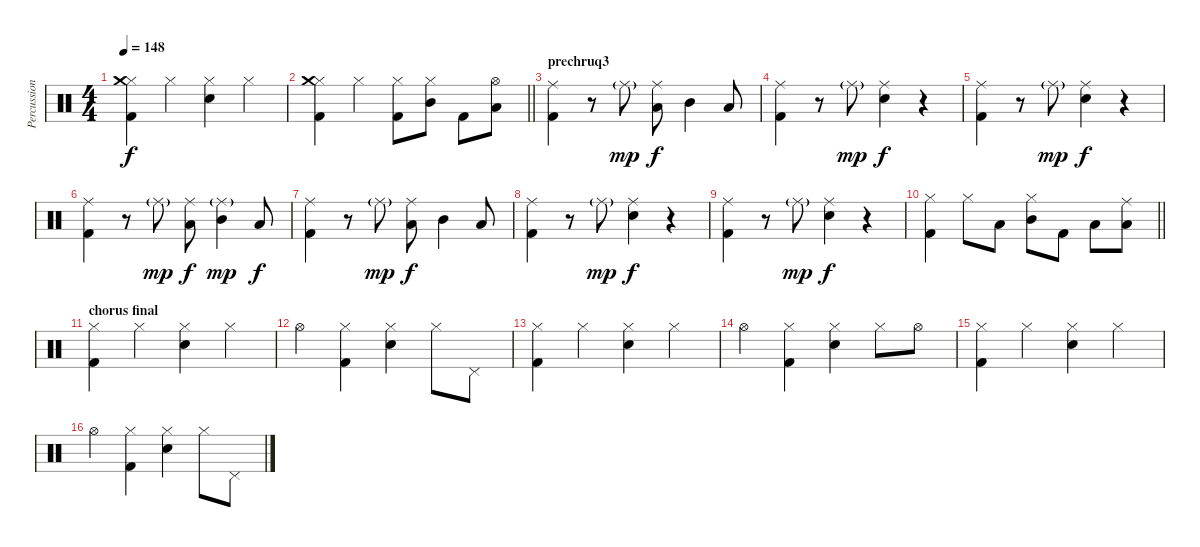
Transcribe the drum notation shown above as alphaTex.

\track ("Percussions" "Percussion") {instrument percussion}
\staff {score}
\articulation defaults
\ts (4 4)
\tempo 148
\clef neutral
\ks c
("Hi-Hat (closed)" "Kick (hit) 2" "Crash medium (hit)").4{dy f} "Hi-Hat (closed)".4 ("Hi-Hat (closed)" "Snare (hit) 2").4 "Hi-Hat (closed)".4 |
\barLineRight lightlight
("Hi-Hat (closed)" "Kick (hit) 2" "Crash medium (hit)").4 "Hi-Hat (closed)".4 ("Hi-Hat (closed)" "Kick (hit) 2").8 ("Hi-Hat (closed)" "Mid Tom (hit)").8 "Kick (hit) 2".8 ("Hi-Hat (open)" "Low Tom (hit)").8 |
\section ("" "prechruq3")
("Ride (middle)" "Kick (hit) 2").4 r.8 "Ride (middle)"{g}.8{dy mp} ("Ride (middle)" "Low Tom (hit)").8{dy f} "Mid Tom (hit)".4 "Low Tom (hit)".8 |
("Ride (middle)" "Kick (hit) 2").4 r.8 "Ride (middle)"{g}.8{dy mp} ("Ride (middle)" "Snare (hit) 2").4{dy f} r.4 |
("Ride (middle)" "Kick (hit) 2").4 r.8 "Ride (middle)"{g}.8{dy mp} ("Ride (middle)" "Snare (hit) 2").4{dy f} r.4 |
("Ride (middle)" "Kick (hit) 2").4 r.8 "Ride (middle)"{g}.8{dy mp} ("Ride (middle)" "Low Tom (hit)").8{dy f} ("Ride (middle)"{g} "Mid Tom (hit)").4{dy mp} "Low Tom (hit)".8{dy f} |
("Ride (middle)" "Kick (hit) 2").4 r.8 "Ride (middle)"{g}.8{dy mp} ("Ride (middle)" "Low Tom (hit)").8{dy f} "Mid Tom (hit)".4 "Low Tom (hit)".8 |
("Ride (middle)" "Kick (hit) 2").4 r.8 "Ride (middle)"{g}.8{dy mp} ("Ride (middle)" "Snare (hit) 2").4{dy f} r.4 |
("Ride (middle)" "Kick (hit) 2").4 r.8 "Ride (middle)"{g}.8{dy mp} ("Ride (middle)" "Snare (hit) 2").4{dy f} r.4 |
\barLineRight lightlight
("Kick (hit) 2" "Hi-Hat (closed)").4 "Hi-Hat (closed)".8 "Low Tom (hit)".8 ("Hi-Hat (closed)" "Mid Tom (hit)").8 "Kick (hit) 2".8 "Low Tom (hit)".8 ("Ride (middle)" "Low Floor Tom (hit)").8 |
\section ("" "chorus final")
("Hi-Hat (closed)" "Kick (hit) 2").4 "Hi-Hat (closed)".4 ("Hi-Hat (closed)" "Snare (hit) 2").4 "Hi-Hat (closed)".4 |
"Hi-Hat (open)".4 ("Hi-Hat (closed)" "Kick (hit) 2").4 ("Hi-Hat (closed)" "Snare (hit) 2").4 "Hi-Hat (closed)".8 "Pedal Hi-Hat (hit)".8 |
("Hi-Hat (closed)" "Kick (hit) 2").4 "Hi-Hat (closed)".4 ("Hi-Hat (closed)" "Snare (hit) 2").4 "Hi-Hat (closed)".4 |
"Hi-Hat (open)".4 ("Hi-Hat (closed)" "Kick (hit) 2").4 ("Hi-Hat (closed)" "Snare (hit) 2").4 "Hi-Hat (closed)".8 "Hi-Hat (open)".8 |
("Hi-Hat (closed)" "Kick (hit) 2").4 "Hi-Hat (closed)".4 ("Hi-Hat (closed)" "Snare (hit) 2").4 "Hi-Hat (closed)".4 |
"Hi-Hat (open)".4 ("Hi-Hat (closed)" "Kick (hit) 2").4 ("Hi-Hat (closed)" "Snare (hit) 2").4 "Hi-Hat (closed)".8 "Pedal Hi-Hat (hit)".8
